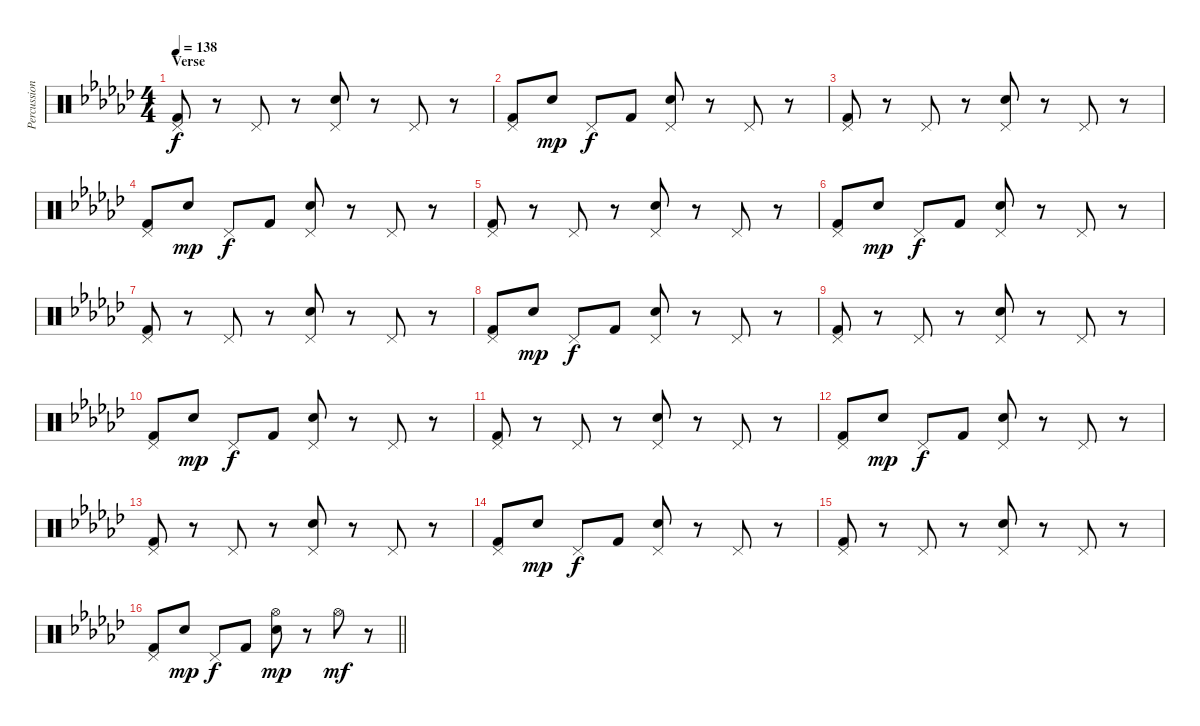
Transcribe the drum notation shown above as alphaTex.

\track ("Percussion" "Percussion") {instrument percussion}
\staff {score}
\articulation defaults
\ts (4 4)
\section ("" "Verse")
\tempo 138
\clef neutral
\ks gb
("Pedal Hi-Hat (hit)" "Kick (hit) 2").8{dy f} r.8 "Pedal Hi-Hat (hit)".8 r.8 ("Pedal Hi-Hat (hit)" "Electric Snare (hit)").8 r.8 "Pedal Hi-Hat (hit)".8 r.8 |
("Pedal Hi-Hat (hit)" "Kick (hit) 2").8 "Electric Snare (hit)".8{dy mp} "Pedal Hi-Hat (hit)".8{dy f} "Kick (hit) 2".8 ("Pedal Hi-Hat (hit)" "Electric Snare (hit)").8 r.8 "Pedal Hi-Hat (hit)".8 r.8 |
("Pedal Hi-Hat (hit)" "Kick (hit) 2").8 r.8 "Pedal Hi-Hat (hit)".8 r.8 ("Pedal Hi-Hat (hit)" "Electric Snare (hit)").8 r.8 "Pedal Hi-Hat (hit)".8 r.8 |
("Pedal Hi-Hat (hit)" "Kick (hit) 2").8 "Electric Snare (hit)".8{dy mp} "Pedal Hi-Hat (hit)".8{dy f} "Kick (hit) 2".8 ("Pedal Hi-Hat (hit)" "Electric Snare (hit)").8 r.8 "Pedal Hi-Hat (hit)".8 r.8 |
("Pedal Hi-Hat (hit)" "Kick (hit) 2").8 r.8 "Pedal Hi-Hat (hit)".8 r.8 ("Pedal Hi-Hat (hit)" "Electric Snare (hit)").8 r.8 "Pedal Hi-Hat (hit)".8 r.8 |
("Pedal Hi-Hat (hit)" "Kick (hit) 2").8 "Electric Snare (hit)".8{dy mp} "Pedal Hi-Hat (hit)".8{dy f} "Kick (hit) 2".8 ("Pedal Hi-Hat (hit)" "Electric Snare (hit)").8 r.8 "Pedal Hi-Hat (hit)".8 r.8 |
("Pedal Hi-Hat (hit)" "Kick (hit) 2").8 r.8 "Pedal Hi-Hat (hit)".8 r.8 ("Pedal Hi-Hat (hit)" "Electric Snare (hit)").8 r.8 "Pedal Hi-Hat (hit)".8 r.8 |
("Pedal Hi-Hat (hit)" "Kick (hit) 2").8 "Electric Snare (hit)".8{dy mp} "Pedal Hi-Hat (hit)".8{dy f} "Kick (hit) 2".8 ("Pedal Hi-Hat (hit)" "Electric Snare (hit)").8 r.8 "Pedal Hi-Hat (hit)".8 r.8 |
("Pedal Hi-Hat (hit)" "Kick (hit) 2").8 r.8 "Pedal Hi-Hat (hit)".8 r.8 ("Pedal Hi-Hat (hit)" "Electric Snare (hit)").8 r.8 "Pedal Hi-Hat (hit)".8 r.8 |
("Pedal Hi-Hat (hit)" "Kick (hit) 2").8 "Electric Snare (hit)".8{dy mp} "Pedal Hi-Hat (hit)".8{dy f} "Kick (hit) 2".8 ("Pedal Hi-Hat (hit)" "Electric Snare (hit)").8 r.8 "Pedal Hi-Hat (hit)".8 r.8 |
("Pedal Hi-Hat (hit)" "Kick (hit) 2").8 r.8 "Pedal Hi-Hat (hit)".8 r.8 ("Pedal Hi-Hat (hit)" "Electric Snare (hit)").8 r.8 "Pedal Hi-Hat (hit)".8 r.8 |
("Pedal Hi-Hat (hit)" "Kick (hit) 2").8 "Electric Snare (hit)".8{dy mp} "Pedal Hi-Hat (hit)".8{dy f} "Kick (hit) 2".8 ("Pedal Hi-Hat (hit)" "Electric Snare (hit)").8 r.8 "Pedal Hi-Hat (hit)".8 r.8 |
("Pedal Hi-Hat (hit)" "Kick (hit) 2").8 r.8 "Pedal Hi-Hat (hit)".8 r.8 ("Pedal Hi-Hat (hit)" "Electric Snare (hit)").8 r.8 "Pedal Hi-Hat (hit)".8 r.8 |
("Pedal Hi-Hat (hit)" "Kick (hit) 2").8 "Electric Snare (hit)".8{dy mp} "Pedal Hi-Hat (hit)".8{dy f} "Kick (hit) 2".8 ("Pedal Hi-Hat (hit)" "Electric Snare (hit)").8 r.8 "Pedal Hi-Hat (hit)".8 r.8 |
("Pedal Hi-Hat (hit)" "Kick (hit) 2").8 r.8 "Pedal Hi-Hat (hit)".8 r.8 ("Pedal Hi-Hat (hit)" "Electric Snare (hit)").8 r.8 "Pedal Hi-Hat (hit)".8 r.8 |
\barLineRight lightlight
("Pedal Hi-Hat (hit)" "Kick (hit) 2").8 "Electric Snare (hit)".8{dy mp} "Pedal Hi-Hat (hit)".8{dy f} "Kick (hit) 2".8 ("Hi-Hat (open)" "Electric Snare (hit)").8{dy mp} r.8 "Hi-Hat (open)".8{dy mf} r.8
